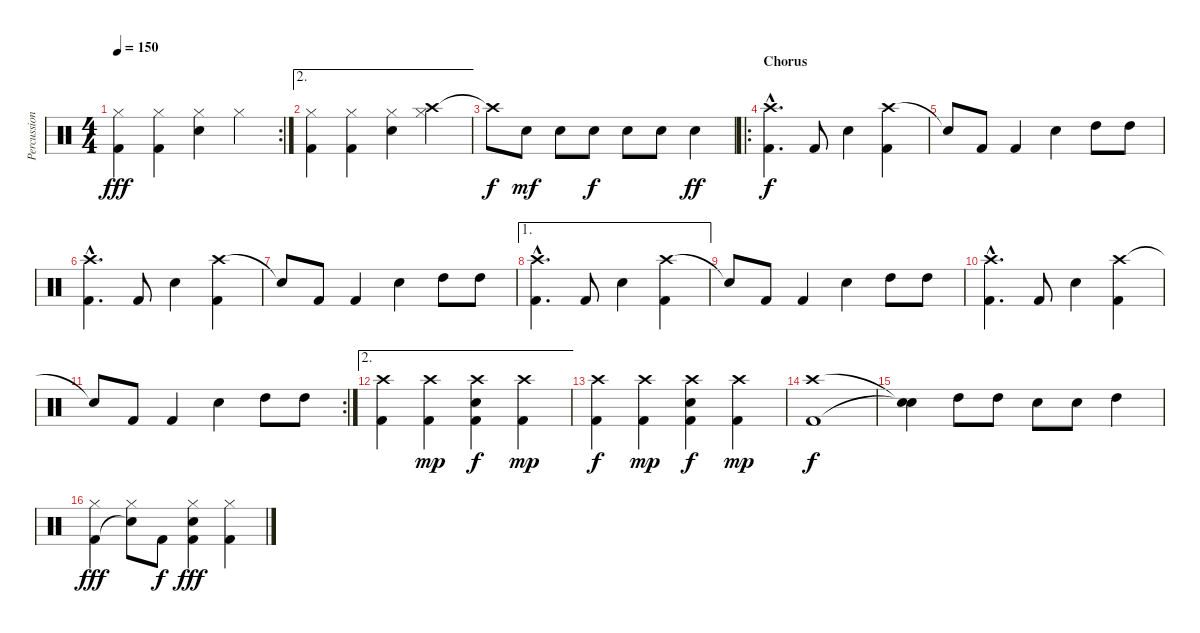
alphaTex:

\track ("Percussion" "Percussion") {instrument percussion}
\staff {score}
\articulation defaults
\rc 2
\ts (4 4)
\tempo 150
\clef neutral
\ks c
("Hi-Hat (closed)" "Kick (hit) 2").4{dy fff} ("Hi-Hat (closed)" "Kick (hit) 2").4 ("Electric Snare (hit)" "Hi-Hat (closed)").4 "Hi-Hat (closed)".4 |
\ae 2
("Hi-Hat (closed)" "Kick (hit) 2").4 ("Hi-Hat (closed)" "Kick (hit) 2").4 ("Electric Snare (hit)" "Hi-Hat (closed)").4 ("Crash high (hit)" "Hi-Hat (closed)").4 |
"Crash high (hit)"{t}.8{dy f} "Snare (hit) 2".8{dy mf} "Snare (hit) 2".8 "Snare (hit) 2".8{dy f} "Snare (hit) 2".8 "Snare (hit) 2".8 "Electric Snare (hit)".4{dy ff} |
\ro
\section ("" "Chorus")
("Crash high (hit)"{hac} "Kick (hit) 2"{hac}).4{d dy f} "Kick (hit) 2".8 "Electric Snare (hit)".4 ("Crash high (hit)" "Kick (hit) 2").4 |
"Snare (hit)"{t}.8 "Kick (hit) 2".8 "Kick (hit) 2".4 "Electric Snare (hit)".4 "High Tom (hit)".8 "High Tom (hit)".8 |
("Crash high (hit)"{hac} "Kick (hit) 2"{hac}).4{d} "Kick (hit) 2".8 "Electric Snare (hit)".4 ("Crash high (hit)" "Kick (hit) 2").4 |
"Snare (hit)"{t}.8 "Kick (hit) 2".8 "Kick (hit) 2".4 "Electric Snare (hit)".4 "High Tom (hit)".8 "High Tom (hit)".8 |
\ae 1
("Crash high (hit)"{hac} "Kick (hit) 2"{hac}).4{d} "Kick (hit) 2".8 "Electric Snare (hit)".4 ("Crash high (hit)" "Kick (hit) 2").4 |
"Snare (hit)"{t}.8 "Kick (hit) 2".8 "Kick (hit) 2".4 "Electric Snare (hit)".4 "High Tom (hit)".8 "High Tom (hit)".8 |
("Crash high (hit)"{hac} "Kick (hit) 2"{hac}).4{d} "Kick (hit) 2".8 "Electric Snare (hit)".4 ("Crash high (hit)" "Kick (hit) 2").4 |
\rc 2 "Snare (hit)"{t}.8 "Kick (hit) 2".8 "Kick (hit) 2".4 "Electric Snare (hit)".4 "High Tom (hit)".8 "High Tom (hit)".8
|
\ae 2
("Crash high (hit)" "Kick (hit) 2").4 ("Crash high (hit)" "Kick (hit) 2").4{dy mp} ("Crash high (hit)" "Electric Snare (hit)" "Kick (hit) 2").4{dy f} ("Crash high (hit)" "Kick (hit) 2").4{dy mp} |
("Crash high (hit)" "Kick (hit) 2").4{dy f} ("Crash high (hit)" "Kick (hit) 2").4{dy mp} ("Crash high (hit)" "Electric Snare (hit)" "Kick (hit) 2").4{dy f} ("Crash high (hit)" "Kick (hit) 2").4{dy mp} |
("Crash high (hit)" "Kick (hit) 2").1{dy f} |
("Snare (hit)"{t} "Snare (hit)"{t}).4 "High Tom (hit)".8 "High Tom (hit)".8 "Electric Snare (hit)".8 "Electric Snare (hit)".8 "High Tom (hit)".4 |
("Hi-Hat (closed)" "Kick (hit) 2").4{dy fff} ("Hi-Hat (closed)" "Snare (hit)"{t}).8 "Kick (hit) 2".8{dy f} ("Electric Snare (hit)" "Hi-Hat (closed)" "Kick (hit) 2").4{dy fff} ("Hi-Hat (closed)" "Kick (hit) 2").4
